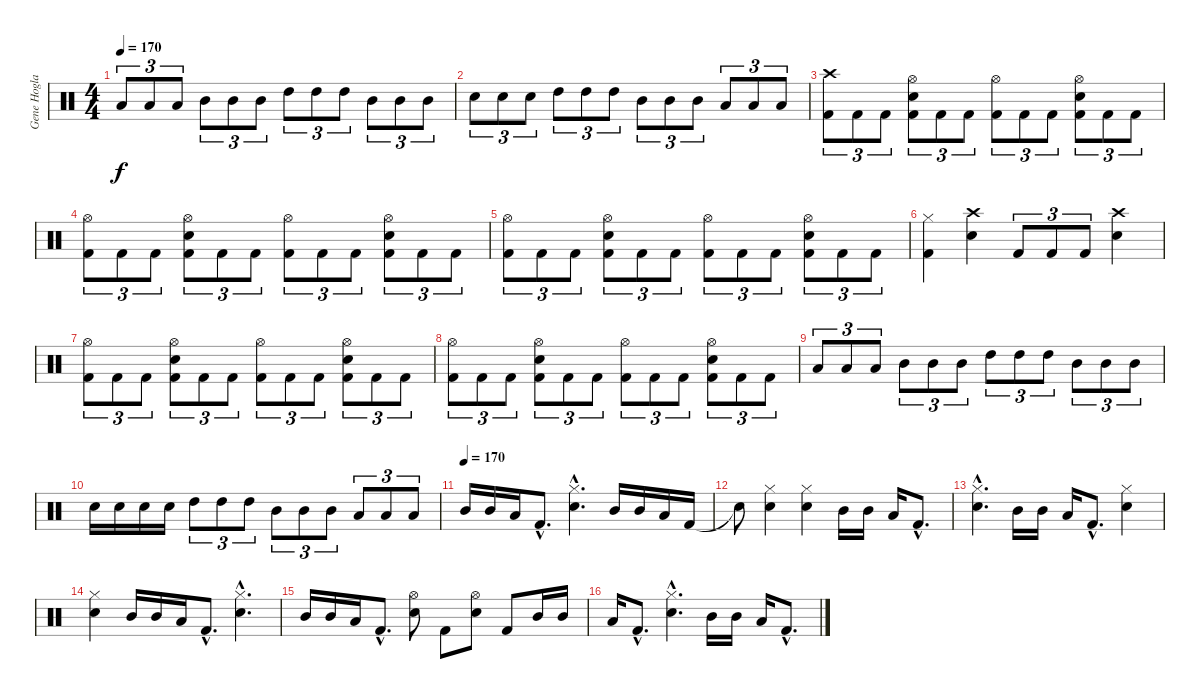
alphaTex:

\track ("Gene Hoglan" "Gene Hogla") {instrument percussion}
\staff {score}
\articulation defaults
\ts (4 4)
\tempo 170
\clef neutral
\ks c "Low Tom (hit)".8{tu (3 2) dy f} "Low Tom (hit)".8{tu (3 2)} "Low Tom (hit)".8{tu (3 2)} "Mid Tom (hit)".8{tu (3 2)} "Mid Tom (hit)".8{tu (3 2)} "Mid Tom (hit)".8{tu (3 2)} "High Tom (hit)".8{tu (3 2)} "High Tom (hit)".8{tu (3 2)} "High Tom (hit)".8{tu (3 2)} "Mid Tom (hit)".8{tu (3 2)} "Mid Tom (hit)".8{tu (3 2)} "Mid Tom (hit)".8{tu (3 2)}
|
"Snare (hit) 2".8{tu (3 2)} "Snare (hit) 2".8{tu (3 2)} "Snare (hit) 2".8{tu (3 2)} "High Tom (hit)".8{tu (3 2)} "High Tom (hit)".8{tu (3 2)} "High Tom (hit)".8{tu (3 2)} "Mid Tom (hit)".8{tu (3 2)} "Mid Tom (hit)".8{tu (3 2)} "Mid Tom (hit)".8{tu (3 2)} "Low Tom (hit)".8{tu (3 2)} "Low Tom (hit)".8{tu (3 2)} "Low Tom (hit)".8{tu (3 2)} |
("Crash high (hit)" "Kick (hit) 2").8{tu (3 2)} "Kick (hit) 2".8{tu (3 2)} "Kick (hit) 2".8{tu (3 2)} ("Hi-Hat (open)" "Snare (hit) 2" "Kick (hit) 2").8{tu (3 2)} "Kick (hit) 2".8{tu (3 2)} "Kick (hit) 2".8{tu (3 2)} ("Hi-Hat (open)" "Kick (hit) 2").8{tu (3 2)} "Kick (hit) 2".8{tu (3 2)} "Kick (hit) 2".8{tu (3 2)} ("Hi-Hat (open)" "Snare (hit) 2" "Kick (hit) 2").8{tu (3 2)} "Kick (hit) 2".8{tu (3 2)} "Kick (hit) 2".8{tu (3 2)} |
("Hi-Hat (open)" "Kick (hit) 2").8{tu (3 2)} "Kick (hit) 2".8{tu (3 2)} "Kick (hit) 2".8{tu (3 2)} ("Hi-Hat (open)" "Snare (hit) 2" "Kick (hit) 2").8{tu (3 2)} "Kick (hit) 2".8{tu (3 2)} "Kick (hit) 2".8{tu (3 2)} ("Hi-Hat (open)" "Kick (hit) 2").8{tu (3 2)} "Kick (hit) 2".8{tu (3 2)} "Kick (hit) 2".8{tu (3 2)} ("Hi-Hat (open)" "Snare (hit) 2" "Kick (hit) 2").8{tu (3 2)} "Kick (hit) 2".8{tu (3 2)} "Kick (hit) 2".8{tu (3 2)} |
("Hi-Hat (open)" "Kick (hit) 2").8{tu (3 2)} "Kick (hit) 2".8{tu (3 2)} "Kick (hit) 2".8{tu (3 2)} ("Hi-Hat (open)" "Snare (hit) 2" "Kick (hit) 2").8{tu (3 2)} "Kick (hit) 2".8{tu (3 2)} "Kick (hit) 2".8{tu (3 2)} ("Hi-Hat (open)" "Kick (hit) 2").8{tu (3 2)} "Kick (hit) 2".8{tu (3 2)} "Kick (hit) 2".8{tu (3 2)} ("Hi-Hat (open)" "Snare (hit) 2" "Kick (hit) 2").8{tu (3 2)} "Kick (hit) 2".8{tu (3 2)} "Kick (hit) 2".8{tu (3 2)} |
("Hi-Hat (closed)" "Kick (hit) 2").4 ("Crash high (hit)" "Snare (hit) 2").4 "Kick (hit) 2".8{tu (3 2)} "Kick (hit) 2".8{tu (3 2)} "Kick (hit) 2".8{tu (3 2)} ("Crash high (hit)" "Snare (hit) 2").4 |
("Hi-Hat (open)" "Kick (hit) 2").8{tu (3 2)} "Kick (hit) 2".8{tu (3 2)} "Kick (hit) 2".8{tu (3 2)} ("Hi-Hat (open)" "Snare (hit) 2" "Kick (hit) 2").8{tu (3 2)} "Kick (hit) 2".8{tu (3 2)} "Kick (hit) 2".8{tu (3 2)} ("Hi-Hat (open)" "Kick (hit) 2").8{tu (3 2)} "Kick (hit) 2".8{tu (3 2)} "Kick (hit) 2".8{tu (3 2)} ("Hi-Hat (open)" "Snare (hit) 2" "Kick (hit) 2").8{tu (3 2)} "Kick (hit) 2".8{tu (3 2)} "Kick (hit) 2".8{tu (3 2)} |
("Hi-Hat (open)" "Kick (hit) 2").8{tu (3 2)} "Kick (hit) 2".8{tu (3 2)} "Kick (hit) 2".8{tu (3 2)} ("Hi-Hat (open)" "Snare (hit) 2" "Kick (hit) 2").8{tu (3 2)} "Kick (hit) 2".8{tu (3 2)} "Kick (hit) 2".8{tu (3 2)} ("Hi-Hat (open)" "Kick (hit) 2").8{tu (3 2)} "Kick (hit) 2".8{tu (3 2)} "Kick (hit) 2".8{tu (3 2)} ("Hi-Hat (open)" "Snare (hit) 2" "Kick (hit) 2").8{tu (3 2)} "Kick (hit) 2".8{tu (3 2)} "Kick (hit) 2".8{tu (3 2)} |
"Low Tom (hit)".8{tu (3 2)} "Low Tom (hit)".8{tu (3 2)} "Low Tom (hit)".8{tu (3 2)} "Mid Tom (hit)".8{tu (3 2)} "Mid Tom (hit)".8{tu (3 2)} "Mid Tom (hit)".8{tu (3 2)} "High Tom (hit)".8{tu (3 2)} "High Tom (hit)".8{tu (3 2)} "High Tom (hit)".8{tu (3 2)} "Mid Tom (hit)".8{tu (3 2)} "Mid Tom (hit)".8{tu (3 2)} "Mid Tom (hit)".8{tu (3 2)} |
"Snare (hit) 2".16 "Snare (hit) 2".16 "Snare (hit) 2".16 "Snare (hit) 2".16 "High Tom (hit)".8{tu (3 2)} "High Tom (hit)".8{tu (3 2)} "High Tom (hit)".8{tu (3 2)} "Mid Tom (hit)".8{tu (3 2)} "Mid Tom (hit)".8{tu (3 2)} "Mid Tom (hit)".8{tu (3 2)} "Low Tom (hit)".8{tu (3 2)} "Low Tom (hit)".8{tu (3 2)} "Low Tom (hit)".8{tu (3 2)} |
\tempo (170)
"Mid Tom (hit)".16 "Mid Tom (hit)".16 "Low Tom (hit)".16 "Kick (hit) 2"{hac}.8{d} ("Hi-Hat (closed)"{hac} "Snare (hit) 2"{hac}).4{d} "Mid Tom (hit)".16 "Mid Tom (hit)".16 "Low Tom (hit)".16 "Kick (hit) 2".16 |
"Snare (hit) 2"{t}.8 ("Hi-Hat (closed)" "Snare (hit) 2").4 ("Hi-Hat (closed)" "Snare (hit) 2").4 "Mid Tom (hit)".16 "Mid Tom (hit)".16 "Low Tom (hit)".16 "Kick (hit) 2"{hac}.8{d} |
("Hi-Hat (closed)"{hac} "Snare (hit) 2"{hac}).4{d} "Mid Tom (hit)".16 "Mid Tom (hit)".16 "Low Tom (hit)".16 "Kick (hit) 2"{hac}.8{d} ("Hi-Hat (closed)" "Snare (hit) 2").4 |
("Hi-Hat (closed)" "Snare (hit) 2").4 "Mid Tom (hit)".16 "Mid Tom (hit)".16 "Low Tom (hit)".16 "Kick (hit) 2"{hac}.8{d} ("Hi-Hat (closed)"{hac} "Snare (hit) 2"{hac}).4{d} |
"Mid Tom (hit)".16 "Mid Tom (hit)".16 "Low Tom (hit)".16 "Kick (hit) 2"{hac}.8{d} ("Hi-Hat (open)" "Snare (hit) 2").8 "Kick (hit) 2".8 ("Hi-Hat (open)" "Snare (hit) 2").8 "Kick (hit) 2".8 "Mid Tom (hit)".16 "Mid Tom (hit)".16 |
"Low Tom (hit)".16 "Kick (hit) 2"{hac}.8{d} ("Hi-Hat (closed)"{hac} "Snare (hit) 2"{hac}).4{d} "Mid Tom (hit)".16 "Mid Tom (hit)".16 "Low Tom (hit)".16 "Kick (hit) 2"{hac}.8{d}
